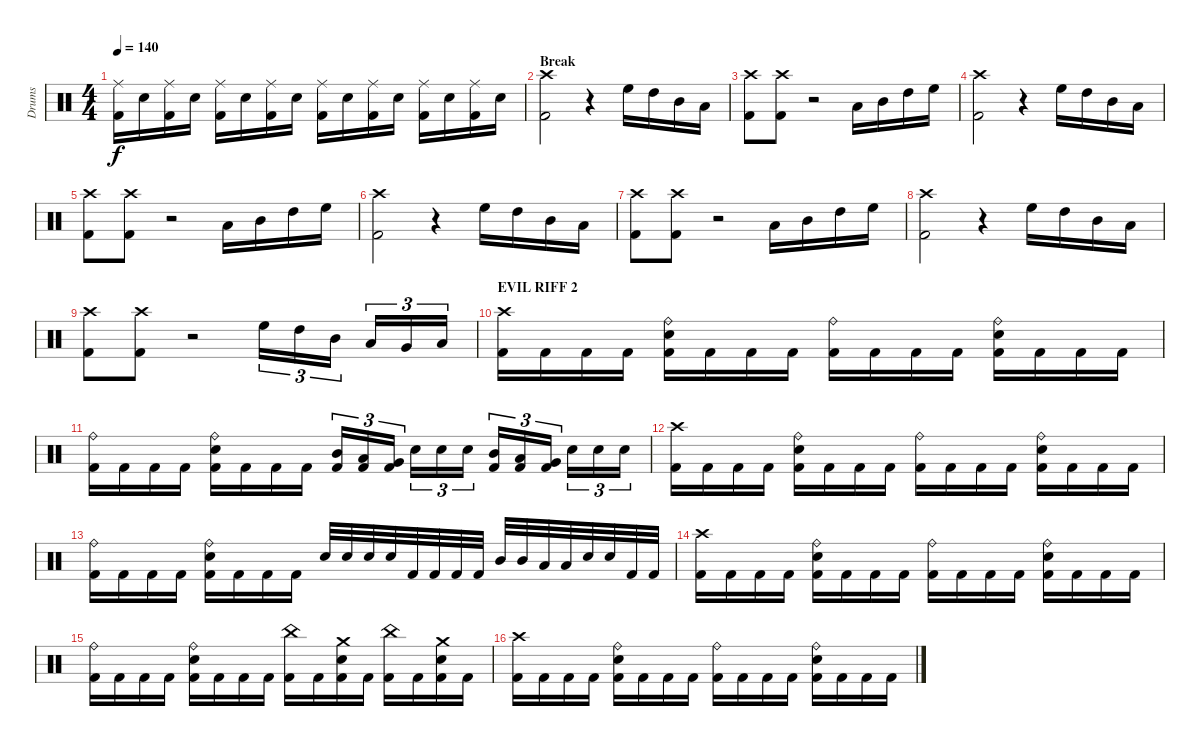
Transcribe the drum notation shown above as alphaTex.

\track ("Drums" "Drums") {instrument percussion}
\staff {score}
\articulation defaults
\ts (4 4)
\tempo 140
\clef neutral
\ks c
("Ride (middle)" "Kick (hit) 2").16{dy f} "Electric Snare (hit)".16 ("Ride (middle)" "Kick (hit) 2").16 "Electric Snare (hit)".16 ("Ride (middle)" "Kick (hit) 2").16 "Electric Snare (hit)".16 ("Ride (middle)" "Kick (hit) 2").16 "Electric Snare (hit)".16 ("Ride (middle)" "Kick (hit) 2").16 "Electric Snare (hit)".16 ("Ride (middle)" "Kick (hit) 2").16 "Electric Snare (hit)".16 ("Ride (middle)" "Kick (hit) 2").16 "Electric Snare (hit)".16 ("Ride (middle)" "Kick (hit) 2").16 "Electric Snare (hit)".16 |
\section ("" "Break")
("Crash high (hit)" "Kick (hit) 2").2 r.4 "High Floor Tom (hit)".16 "High Tom (hit)".16 "Mid Tom (hit)".16 "Low Tom (hit)".16 |
("Crash high (hit)" "Kick (hit) 2").8 ("Crash high (hit)" "Kick (hit) 2").8 r.2 "Low Tom (hit)".16 "Mid Tom (hit)".16 "High Tom (hit)".16 "High Floor Tom (hit)".16 |
("Crash high (hit)" "Kick (hit) 2").2 r.4 "High Floor Tom (hit)".16 "High Tom (hit)".16 "Mid Tom (hit)".16 "Low Tom (hit)".16 |
("Crash high (hit)" "Kick (hit) 2").8 ("Crash high (hit)" "Kick (hit) 2").8 r.2 "Low Tom (hit)".16 "Mid Tom (hit)".16 "High Tom (hit)".16 "High Floor Tom (hit)".16 |
("Crash high (hit)" "Kick (hit) 2").2 r.4 "High Floor Tom (hit)".16 "High Tom (hit)".16 "Mid Tom (hit)".16 "Low Tom (hit)".16 |
("Crash high (hit)" "Kick (hit) 2").8 ("Crash high (hit)" "Kick (hit) 2").8 r.2 "Low Tom (hit)".16 "Mid Tom (hit)".16 "High Tom (hit)".16 "High Floor Tom (hit)".16 |
("Crash high (hit)" "Kick (hit) 2").2 r.4 "High Floor Tom (hit)".16 "High Tom (hit)".16 "Mid Tom (hit)".16 "Low Tom (hit)".16 |
("Crash high (hit)" "Kick (hit) 2").8 ("Crash high (hit)" "Kick (hit) 2").8 r.2 "High Floor Tom (hit)".16{tu (3 2)} "High Tom (hit)".16{tu (3 2)} "Mid Tom (hit)".16{tu (3 2)} "Low Tom (hit)".16{tu (3 2)} "Very Low Tom (hit)".16{tu (3 2)} "Low Floor Tom (hit)".16{tu (3 2)} |
\section ("" "EVIL RIFF 2")
("Crash high (hit)" "Kick (hit) 2").16 "Kick (hit) 2".16 "Kick (hit) 2".16 "Kick (hit) 2".16 ("Ride (bell)" "Electric Snare (hit)" "Kick (hit) 2").16 "Kick (hit) 2".16 "Kick (hit) 2".16 "Kick (hit) 2".16 ("Ride (bell)" "Kick (hit) 2").16 "Kick (hit) 2".16 "Kick (hit) 2".16 "Kick (hit) 2".16 ("Ride (bell)" "Electric Snare (hit)" "Kick (hit) 2").16 "Kick (hit) 2".16 "Kick (hit) 2".16 "Kick (hit) 2".16 |
("Ride (bell)" "Kick (hit) 2").16 "Kick (hit) 2".16 "Kick (hit) 2".16 "Kick (hit) 2".16 ("Ride (bell)" "Electric Snare (hit)" "Kick (hit) 2").16 "Kick (hit) 2".16 "Kick (hit) 2".16 "Kick (hit) 2".16 ("Mid Tom (hit)" "Kick (hit) 2").16{tu (3 2)} ("Low Tom (hit)" "Kick (hit) 2").16{tu (3 2)} ("Very Low Tom (hit)" "Kick (hit) 2").16{tu (3 2)} "Electric Snare (hit)".16{tu (3 2)} "Electric Snare (hit)".16{tu (3 2)} "Electric Snare (hit)".16{tu (3 2)} ("Mid Tom (hit)" "Kick (hit) 2").16{tu (3 2)} ("Low Tom (hit)" "Kick (hit) 2").16{tu (3 2)} ("Very Low Tom (hit)" "Kick (hit) 2").16{tu (3 2)} "Electric Snare (hit)".16{tu (3 2)} "Electric Snare (hit)".16{tu (3 2)} "Electric Snare (hit)".16{tu (3 2)} |
("Crash high (hit)" "Kick (hit) 2").16 "Kick (hit) 2".16 "Kick (hit) 2".16 "Kick (hit) 2".16 ("Ride (bell)" "Electric Snare (hit)" "Kick (hit) 2").16 "Kick (hit) 2".16 "Kick (hit) 2".16 "Kick (hit) 2".16 ("Ride (bell)" "Kick (hit) 2").16 "Kick (hit) 2".16 "Kick (hit) 2".16 "Kick (hit) 2".16 ("Ride (bell)" "Electric Snare (hit)" "Kick (hit) 2").16 "Kick (hit) 2".16 "Kick (hit) 2".16 "Kick (hit) 2".16 |
("Ride (bell)" "Kick (hit) 2").16 "Kick (hit) 2".16 "Kick (hit) 2".16 "Kick (hit) 2".16 ("Ride (bell)" "Electric Snare (hit)" "Kick (hit) 2").16 "Kick (hit) 2".16 "Kick (hit) 2".16 "Kick (hit) 2".16 "Electric Snare (hit)".32 "Electric Snare (hit)".32 "Electric Snare (hit)".32 "Electric Snare (hit)".32 "Kick (hit) 2".32 "Kick (hit) 2".32 "Kick (hit) 2".32 "Kick (hit) 2".32 "Mid Tom (hit)".32 "Mid Tom (hit)".32 "Low Tom (hit)".32 "Low Tom (hit)".32 "Electric Snare (hit)".32 "Electric Snare (hit)".32 "Kick (hit) 2".32 "Kick (hit) 2".32 |
("Crash high (hit)" "Kick (hit) 2").16 "Kick (hit) 2".16 "Kick (hit) 2".16 "Kick (hit) 2".16 ("Ride (bell)" "Electric Snare (hit)" "Kick (hit) 2").16 "Kick (hit) 2".16 "Kick (hit) 2".16 "Kick (hit) 2".16 ("Ride (bell)" "Kick (hit) 2").16 "Kick (hit) 2".16 "Kick (hit) 2".16 "Kick (hit) 2".16 ("Ride (bell)" "Electric Snare (hit)" "Kick (hit) 2").16 "Kick (hit) 2".16 "Kick (hit) 2".16 "Kick (hit) 2".16 |
("Ride (bell)" "Kick (hit) 2").16 "Kick (hit) 2".16 "Kick (hit) 2".16 "Kick (hit) 2".16 ("Ride (bell)" "Electric Snare (hit)" "Kick (hit) 2").16 "Kick (hit) 2".16 "Kick (hit) 2".16 "Kick (hit) 2".16 ("China (hit)" "Kick (hit) 2").16 "Kick (hit) 2".16 ("Crash medium (hit)" "Electric Snare (hit)" "Kick (hit) 2").16 "Kick (hit) 2".16 ("China (hit)" "Kick (hit) 2").16 "Kick (hit) 2".16 ("Crash medium (hit)" "Electric Snare (hit)" "Kick (hit) 2").16 "Kick (hit) 2".16 |
("Crash high (hit)" "Kick (hit) 2").16 "Kick (hit) 2".16 "Kick (hit) 2".16 "Kick (hit) 2".16 ("Ride (bell)" "Electric Snare (hit)" "Kick (hit) 2").16 "Kick (hit) 2".16 "Kick (hit) 2".16 "Kick (hit) 2".16 ("Ride (bell)" "Kick (hit) 2").16 "Kick (hit) 2".16 "Kick (hit) 2".16 "Kick (hit) 2".16 ("Ride (bell)" "Electric Snare (hit)" "Kick (hit) 2").16 "Kick (hit) 2".16 "Kick (hit) 2".16 "Kick (hit) 2".16
